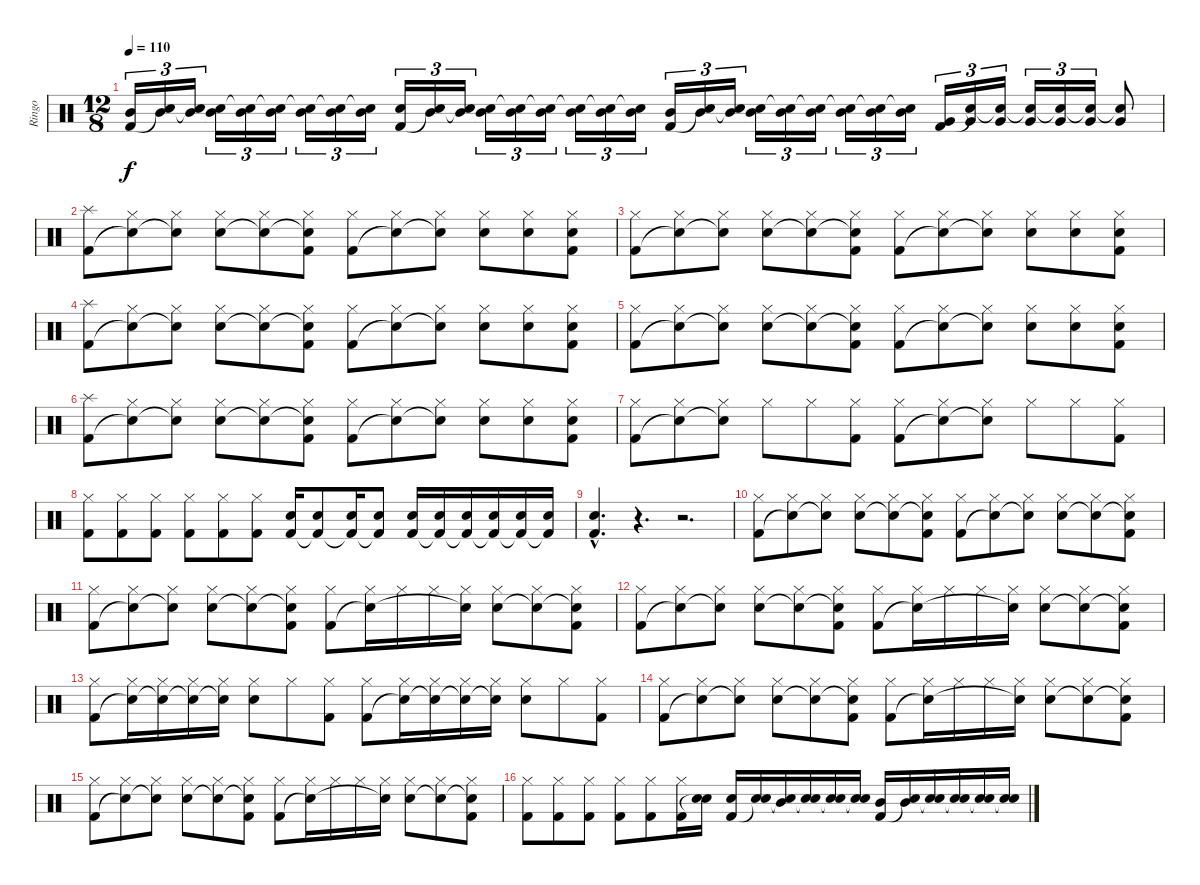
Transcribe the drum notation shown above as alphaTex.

\track ("Ringo" "Ringo") {instrument percussion}
\staff {score}
\articulation defaults
\ts (12 8)
\tempo 110
\clef neutral
\ks c
("Mid Tom (hit)" "Kick (hit) 2").16{tu (3 2) dy f} ("Mid Tom (hit)" "Snare (hit)"{t}).16{tu (3 2)} ("Mid Tom (hit)" "Snare (hit)"{t}).16{tu (3 2)} ("Mid Tom (hit)" "Snare (hit)"{t}).16{tu (3 2)} ("Mid Tom (hit)" "Snare (hit)"{t}).16{tu (3 2)} ("Mid Tom (hit)" "Snare (hit)"{t}).16{tu (3 2)} ("Mid Tom (hit)" "Snare (hit)"{t}).16{tu (3 2)} ("Mid Tom (hit)" "Snare (hit)"{t}).16{tu (3 2)} ("Mid Tom (hit)" "Snare (hit)"{t}).16{tu (3 2)} ("Snare (hit) 2" "Kick (hit) 2").16{tu (3 2)} ("Mid Tom (hit)" "Snare (hit)"{t}).16{tu (3 2)} ("Mid Tom (hit)" "Snare (hit)"{t}).16{tu (3 2)} ("Mid Tom (hit)" "Snare (hit)"{t}).16{tu (3 2)} ("Mid Tom (hit)" "Snare (hit)"{t}).16{tu (3 2)} ("Mid Tom (hit)" "Snare (hit)"{t}).16{tu (3 2)} ("Mid Tom (hit)" "Snare (hit)"{t}).16{tu (3 2)} ("Mid Tom (hit)" "Snare (hit)"{t}).16{tu (3 2)} ("Mid Tom (hit)" "Snare (hit)"{t}).16{tu (3 2)} ("Mid Tom (hit)" "Kick (hit) 2").16{tu (3 2)} ("Mid Tom (hit)" "Snare (hit)"{t}).16{tu (3 2)} ("Mid Tom (hit)" "Snare (hit)"{t}).16{tu (3 2)} ("Mid Tom (hit)" "Snare (hit)"{t}).16{tu (3 2)} ("Mid Tom (hit)" "Snare (hit)"{t}).16{tu (3 2)} ("Mid Tom (hit)" "Snare (hit)"{t}).16{tu (3 2)} ("Mid Tom (hit)" "Snare (hit)"{t}).16{tu (3 2)} ("Mid Tom (hit)" "Snare (hit)"{t}).16{tu (3 2)} ("Mid Tom (hit)" "Snare (hit)"{t}).16{tu (3 2)} ("Very Low Tom (hit)" "Kick (hit) 2").16{tu (3 2)} ("Very Low Tom (hit)" "Snare (hit)"{t}).16{tu (3 2)} ("Very Low Tom (hit)" "Snare (hit)"{t}).16{tu (3 2)} ("Very Low Tom (hit)" "Snare (hit)"{t}).16{tu (3 2)} ("Very Low Tom (hit)" "Snare (hit)"{t}).16{tu (3 2)} ("Very Low Tom (hit)" "Snare (hit)"{t}).16{tu (3 2)} ("Very Low Tom (hit)" "Snare (hit)"{t}).8 |
("Splash (hit)" "Kick (hit) 2").8 ("Hi-Hat (closed)" "Snare (hit)"{t}).8 ("Hi-Hat (closed)" "Snare (hit)"{t}).8 ("Hi-Hat (closed)" "Snare (hit) 2").8 ("Hi-Hat (closed)" "Snare (hit)"{t}).8 ("Hi-Hat (closed)" "Snare (hit)"{t} "Kick (hit) 2").8 ("Hi-Hat (closed)" "Kick (hit) 2").8 ("Hi-Hat (closed)" "Snare (hit)"{t}).8 ("Hi-Hat (closed)" "Snare (hit)"{t}).8 ("Hi-Hat (closed)" "Snare (hit) 2").8 ("Hi-Hat (closed)" "Snare (hit) 2").8 ("Hi-Hat (closed)" "Snare (hit) 2" "Kick (hit) 2").8 |
("Hi-Hat (closed)" "Kick (hit) 2").8 ("Hi-Hat (closed)" "Snare (hit)"{t}).8 ("Hi-Hat (closed)" "Snare (hit)"{t}).8 ("Hi-Hat (closed)" "Snare (hit) 2").8 ("Hi-Hat (closed)" "Snare (hit)"{t}).8 ("Hi-Hat (closed)" "Snare (hit)"{t} "Kick (hit) 2").8 ("Hi-Hat (closed)" "Kick (hit) 2").8 ("Hi-Hat (closed)" "Snare (hit)"{t}).8 ("Hi-Hat (closed)" "Snare (hit)"{t}).8 ("Hi-Hat (closed)" "Snare (hit) 2").8 ("Hi-Hat (closed)" "Snare (hit) 2").8 ("Hi-Hat (closed)" "Snare (hit) 2" "Kick (hit) 2").8 |
("Splash (hit)" "Kick (hit) 2").8 ("Hi-Hat (closed)" "Snare (hit)"{t}).8 ("Hi-Hat (closed)" "Snare (hit)"{t}).8 ("Hi-Hat (closed)" "Snare (hit) 2").8 ("Hi-Hat (closed)" "Snare (hit)"{t}).8 ("Hi-Hat (closed)" "Snare (hit)"{t} "Kick (hit) 2").8 ("Hi-Hat (closed)" "Kick (hit) 2").8 ("Hi-Hat (closed)" "Snare (hit)"{t}).8 ("Hi-Hat (closed)" "Snare (hit)"{t}).8 ("Hi-Hat (closed)" "Snare (hit) 2").8 ("Hi-Hat (closed)" "Snare (hit) 2").8 ("Hi-Hat (closed)" "Snare (hit) 2" "Kick (hit) 2").8 |
("Hi-Hat (closed)" "Kick (hit) 2").8 ("Hi-Hat (closed)" "Snare (hit)"{t}).8 ("Hi-Hat (closed)" "Snare (hit)"{t}).8 ("Hi-Hat (closed)" "Snare (hit) 2").8 ("Hi-Hat (closed)" "Snare (hit)"{t}).8 ("Hi-Hat (closed)" "Snare (hit)"{t} "Kick (hit) 2").8 ("Hi-Hat (closed)" "Kick (hit) 2").8 ("Hi-Hat (closed)" "Snare (hit)"{t}).8 ("Hi-Hat (closed)" "Snare (hit)"{t}).8 ("Hi-Hat (closed)" "Snare (hit) 2").8 ("Hi-Hat (closed)" "Snare (hit) 2").8 ("Hi-Hat (closed)" "Snare (hit) 2" "Kick (hit) 2").8 |
("Splash (hit)" "Kick (hit) 2").8 ("Hi-Hat (closed)" "Snare (hit)"{t}).8 ("Hi-Hat (closed)" "Snare (hit)"{t}).8 ("Hi-Hat (closed)" "Snare (hit) 2").8 ("Hi-Hat (closed)" "Snare (hit)"{t}).8 ("Hi-Hat (closed)" "Snare (hit)"{t} "Kick (hit) 2").8 ("Hi-Hat (closed)" "Kick (hit) 2").8 ("Hi-Hat (closed)" "Snare (hit)"{t}).8 ("Hi-Hat (closed)" "Snare (hit)"{t}).8 ("Hi-Hat (closed)" "Snare (hit) 2").8 ("Hi-Hat (closed)" "Snare (hit) 2").8 ("Hi-Hat (closed)" "Snare (hit) 2" "Kick (hit) 2").8 |
("Hi-Hat (closed)" "Kick (hit) 2").8 ("Hi-Hat (closed)" "Snare (hit)"{t}).8 ("Hi-Hat (closed)" "Snare (hit)"{t}).8 "Hi-Hat (closed)".8 "Hi-Hat (closed)".8 ("Hi-Hat (closed)" "Kick (hit) 2").8 ("Hi-Hat (closed)" "Kick (hit) 2").8 ("Hi-Hat (closed)" "Snare (hit)"{t}).8 ("Hi-Hat (closed)" "Snare (hit)"{t}).8 "Hi-Hat (closed)".8 "Hi-Hat (closed)".8 ("Hi-Hat (closed)" "Kick (hit) 2").8 |
("Hi-Hat (closed)" "Kick (hit) 2").8 ("Hi-Hat (closed)" "Kick (hit) 2").8 ("Hi-Hat (closed)" "Kick (hit) 2").8 ("Hi-Hat (closed)" "Kick (hit) 2").8 ("Hi-Hat (closed)" "Kick (hit) 2").8 ("Hi-Hat (closed)" "Kick (hit) 2").8 ("Snare (hit) 2" "Kick (hit) 2").16 ("Snare (hit) 2" "Kick (hit) 2"{t}).8 ("Snare (hit) 2" "Kick (hit) 2"{t}).16 ("Snare (hit) 2" "Kick (hit) 2"{t}).8 ("Snare (hit) 2" "Kick (hit) 2").16 ("Snare (hit) 2" "Kick (hit) 2"{t}).16 ("Snare (hit) 2" "Kick (hit) 2"{t}).16 ("Snare (hit) 2" "Kick (hit) 2"{t}).16 ("Snare (hit) 2" "Kick (hit) 2"{t}).16 ("Snare (hit) 2" "Kick (hit) 2"{t}).16 |
("Snare (hit) 2"{hac} "Kick (hit) 2"{hac}).4{d} r.4{d} r.2{d} |
("Hi-Hat (closed)" "Kick (hit) 2").8 ("Hi-Hat (closed)" "Snare (hit)"{t}).8 ("Hi-Hat (closed)" "Snare (hit)"{t}).8 ("Hi-Hat (closed)" "Snare (hit) 2").8 ("Hi-Hat (closed)" "Snare (hit)"{t}).8 ("Hi-Hat (closed)" "Snare (hit)"{t} "Kick (hit) 2").8 ("Hi-Hat (closed)" "Kick (hit) 2").8 ("Hi-Hat (closed)" "Snare (hit)"{t}).8 ("Hi-Hat (closed)" "Snare (hit)"{t}).8 ("Hi-Hat (closed)" "Snare (hit) 2").8 ("Hi-Hat (closed)" "Snare (hit)"{t}).8 ("Hi-Hat (closed)" "Snare (hit)"{t} "Kick (hit) 2").8 |
("Hi-Hat (closed)" "Kick (hit) 2").8 ("Hi-Hat (closed)" "Snare (hit)"{t}).8 ("Hi-Hat (closed)" "Snare (hit)"{t}).8 ("Hi-Hat (closed)" "Snare (hit) 2").8 ("Hi-Hat (closed)" "Snare (hit)"{t}).8 ("Hi-Hat (closed)" "Snare (hit)"{t} "Kick (hit) 2").8 ("Hi-Hat (closed)" "Kick (hit) 2").8 ("Hi-Hat (closed)" "Snare (hit)"{t}).16 "Hi-Hat (closed)".16 "Hi-Hat (closed)".16 ("Hi-Hat (closed)" "Snare (hit)"{t}).16 ("Hi-Hat (closed)" "Snare (hit) 2").8 ("Hi-Hat (closed)" "Snare (hit)"{t}).8 ("Hi-Hat (closed)" "Snare (hit)"{t} "Kick (hit) 2").8 |
("Hi-Hat (closed)" "Kick (hit) 2").8 ("Hi-Hat (closed)" "Snare (hit)"{t}).8 ("Hi-Hat (closed)" "Snare (hit)"{t}).8 ("Hi-Hat (closed)" "Snare (hit) 2").8 ("Hi-Hat (closed)" "Snare (hit)"{t}).8 ("Hi-Hat (closed)" "Snare (hit)"{t} "Kick (hit) 2").8 ("Hi-Hat (closed)" "Kick (hit) 2").8 ("Hi-Hat (closed)" "Snare (hit)"{t}).16 "Hi-Hat (closed)".16 "Hi-Hat (closed)".16 ("Hi-Hat (closed)" "Snare (hit)"{t}).16 ("Hi-Hat (closed)" "Snare (hit) 2").8 ("Hi-Hat (closed)" "Snare (hit)"{t}).8 ("Hi-Hat (closed)" "Snare (hit)"{t} "Kick (hit) 2").8 |
("Hi-Hat (closed)" "Kick (hit) 2").8 ("Hi-Hat (closed)" "Snare (hit)"{t}).16 ("Hi-Hat (closed)" "Snare (hit)"{t}).16 ("Hi-Hat (closed)" "Snare (hit)"{t}).16 ("Hi-Hat (closed)" "Snare (hit)"{t}).16 ("Hi-Hat (closed)" "Snare (hit) 2").8 "Hi-Hat (closed)".8 ("Hi-Hat (closed)" "Kick (hit) 2").8 ("Hi-Hat (closed)" "Kick (hit) 2").8 ("Hi-Hat (closed)" "Snare (hit)"{t}).16 ("Hi-Hat (closed)" "Snare (hit)"{t}).16 ("Hi-Hat (closed)" "Snare (hit)"{t}).16 ("Hi-Hat (closed)" "Snare (hit)"{t}).16 ("Hi-Hat (closed)" "Snare (hit) 2").8 "Hi-Hat (closed)".8 ("Hi-Hat (closed)" "Kick (hit) 2").8 |
("Hi-Hat (closed)" "Kick (hit) 2").8 ("Hi-Hat (closed)" "Snare (hit)"{t}).8 ("Hi-Hat (closed)" "Snare (hit)"{t}).8 ("Hi-Hat (closed)" "Snare (hit) 2").8 ("Hi-Hat (closed)" "Snare (hit)"{t}).8 ("Hi-Hat (closed)" "Snare (hit)"{t} "Kick (hit) 2").8 ("Hi-Hat (closed)" "Kick (hit) 2").8 ("Hi-Hat (closed)" "Snare (hit)"{t}).16 "Hi-Hat (closed)".16 "Hi-Hat (closed)".16 ("Hi-Hat (closed)" "Snare (hit)"{t}).16 ("Hi-Hat (closed)" "Snare (hit) 2").8 ("Hi-Hat (closed)" "Snare (hit)"{t}).8 ("Hi-Hat (closed)" "Snare (hit)"{t} "Kick (hit) 2").8 |
("Hi-Hat (closed)" "Kick (hit) 2").8 ("Hi-Hat (closed)" "Snare (hit)"{t}).8 ("Hi-Hat (closed)" "Snare (hit)"{t}).8 ("Hi-Hat (closed)" "Snare (hit) 2").8 ("Hi-Hat (closed)" "Snare (hit)"{t}).8 ("Hi-Hat (closed)" "Snare (hit)"{t} "Kick (hit) 2").8 ("Hi-Hat (closed)" "Kick (hit) 2").8 ("Hi-Hat (closed)" "Snare (hit)"{t}).16 "Hi-Hat (closed)".16 "Hi-Hat (closed)".16 ("Hi-Hat (closed)" "Snare (hit)"{t}).16 ("Hi-Hat (closed)" "Snare (hit) 2").8 ("Hi-Hat (closed)" "Snare (hit)"{t}).8 ("Hi-Hat (closed)" "Snare (hit)"{t} "Kick (hit) 2").8 |
("Hi-Hat (closed)" "Kick (hit) 2").8 ("Hi-Hat (closed)" "Kick (hit) 2").8 ("Hi-Hat (closed)" "Kick (hit) 2").8 ("Hi-Hat (closed)" "Kick (hit) 2").8 ("Hi-Hat (closed)" "Kick (hit) 2").8 ("Hi-Hat (closed)" "Kick (hit) 2").16 ("Snare (hit) 2" "Snare (hit)"{t}).16 ("Snare (hit) 2" "Kick (hit) 2").16 ("Snare (hit) 2" "Snare (hit)"{t}).16 ("Mid Tom (hit)" "Snare (hit)"{t}).16 ("Snare (hit) 2" "Snare (hit)"{t}).16 ("Snare (hit) 2" "Snare (hit)"{t}).16 ("Snare (hit) 2" "Snare (hit)"{t}).16 ("Mid Tom (hit)" "Kick (hit) 2").16 ("Mid Tom (hit)" "Snare (hit)"{t}).16 ("Snare (hit) 2" "Snare (hit)"{t}).16 ("Snare (hit) 2" "Snare (hit)"{t}).16 ("Snare (hit) 2" "Snare (hit)"{t}).16 ("Snare (hit) 2" "Snare (hit)"{t}).16
